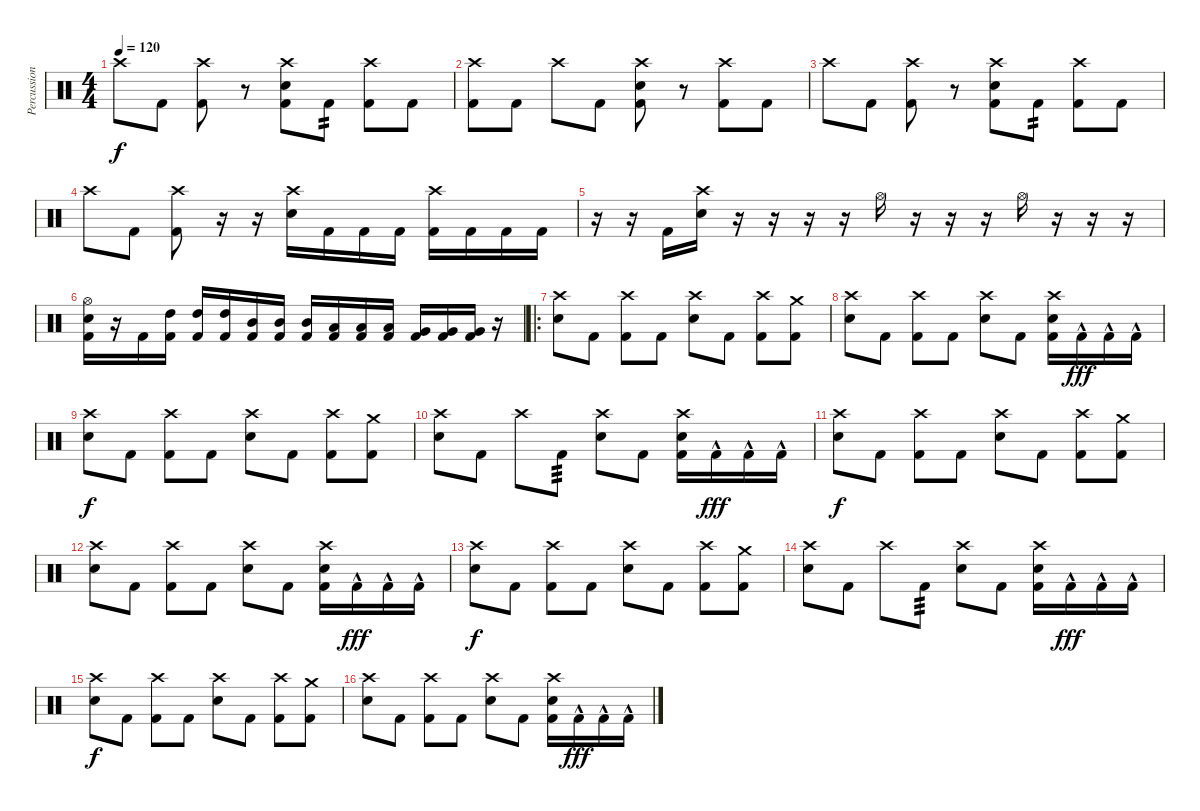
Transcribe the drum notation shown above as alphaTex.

\track ("Percussion" "Percussion") {instrument percussion}
\staff {score}
\articulation defaults
\ts (4 4)
\tempo 120
\clef neutral
\ks c "Crash high (hit)".8{dy f} "Kick (hit) 2".8
("Crash high (hit)" "Kick (hit) 2").8 r.8 ("Crash high (hit)" "Snare (hit) 2" "Kick (hit) 2").8 "Kick (hit) 2".8{tp 2} ("Crash high (hit)" "Kick (hit) 2").8 "Kick (hit) 2".8 |
("Crash high (hit)" "Kick (hit) 2").8 "Kick (hit) 2".8 "Crash high (hit)".8 "Kick (hit) 2".8 ("Crash high (hit)" "Snare (hit) 2" "Kick (hit) 2").8 r.8 ("Crash high (hit)" "Kick (hit) 2").8 "Kick (hit) 2".8 |
"Crash high (hit)".8 "Kick (hit) 2".8 ("Crash high (hit)" "Kick (hit) 2").8 r.8 ("Crash high (hit)" "Snare (hit) 2" "Kick (hit) 2").8 "Kick (hit) 2".8{tp 2} ("Crash high (hit)" "Kick (hit) 2").8 "Kick (hit) 2".8 |
"Crash high (hit)".8 "Kick (hit) 2".8 ("Crash high (hit)" "Kick (hit) 2").8 r.16 r.16 ("Crash high (hit)" "Snare (hit) 2").16 "Kick (hit) 2".16 "Kick (hit) 2".16 "Kick (hit) 2".16 ("Crash high (hit)" "Kick (hit) 2").16 "Kick (hit) 2".16 "Kick (hit) 2".16 "Kick (hit) 2".16 |
r.16 r.16 "Kick (hit) 2".16 ("Crash high (hit)" "Snare (hit) 2").16 r.16 r.16 r.16 r.16 "Hi-Hat (open)".16 r.16 r.16 r.16 "Hi-Hat (open)".16 r.16 r.16 r.16 |
("Hi-Hat (open)" "Snare (hit) 2" "Kick (hit) 2").16 r.16 "Kick (hit) 2".16 ("High Tom (hit)" "Kick (hit) 2").16 ("High Tom (hit)" "Kick (hit) 2").16 ("High Tom (hit)" "Kick (hit) 2").16 ("Mid Tom (hit)" "Kick (hit) 2").16 ("Mid Tom (hit)" "Kick (hit) 2").16 ("Mid Tom (hit)" "Kick (hit) 2").16 ("Low Tom (hit)" "Kick (hit) 2").16 ("Low Tom (hit)" "Kick (hit) 2").16 ("Low Tom (hit)" "Kick (hit) 2").16 ("Very Low Tom (hit)" "Kick (hit) 2").16 ("Very Low Tom (hit)" "Kick (hit) 2").16 ("Very Low Tom (hit)" "Kick (hit) 2").16 r.16 |
\ro
("Crash high (hit)" "Snare (hit) 2").8 "Kick (hit) 2".8 ("Crash high (hit)" "Kick (hit) 2").8 "Kick (hit) 2".8 ("Crash high (hit)" "Snare (hit) 2").8 "Kick (hit) 2".8 ("Crash high (hit)" "Kick (hit) 2").8 ("Crash medium (hit)" "Kick (hit) 2").8 |
("Crash high (hit)" "Snare (hit) 2").8 "Kick (hit) 2".8 ("Crash high (hit)" "Kick (hit) 2").8 "Kick (hit) 2".8 ("Crash high (hit)" "Snare (hit) 2").8 "Kick (hit) 2".8 ("Crash high (hit)" "Snare (hit) 2" "Kick (hit) 2").16 "Kick (hit) 2"{hac}.16{dy fff} "Kick (hit) 2"{hac}.16 "Kick (hit) 2"{hac}.16 |
("Crash high (hit)" "Snare (hit) 2").8{dy f} "Kick (hit) 2".8 ("Crash high (hit)" "Kick (hit) 2").8 "Kick (hit) 2".8 ("Crash high (hit)" "Snare (hit) 2").8 "Kick (hit) 2".8 ("Crash high (hit)" "Kick (hit) 2").8 ("Crash medium (hit)" "Kick (hit) 2").8 |
("Crash high (hit)" "Snare (hit) 2").8 "Kick (hit) 2".8 "Crash high (hit)".8 "Kick (hit) 2".8{tp 3} ("Crash high (hit)" "Snare (hit) 2").8 "Kick (hit) 2".8 ("Crash high (hit)" "Snare (hit) 2" "Kick (hit) 2").16 "Kick (hit) 2"{hac}.16{dy fff} "Kick (hit) 2"{hac}.16 "Kick (hit) 2"{hac}.16 |
("Crash high (hit)" "Snare (hit) 2").8{dy f} "Kick (hit) 2".8 ("Crash high (hit)" "Kick (hit) 2").8 "Kick (hit) 2".8 ("Crash high (hit)" "Snare (hit) 2").8 "Kick (hit) 2".8 ("Crash high (hit)" "Kick (hit) 2").8 ("Crash medium (hit)" "Kick (hit) 2").8 |
("Crash high (hit)" "Snare (hit) 2").8 "Kick (hit) 2".8 ("Crash high (hit)" "Kick (hit) 2").8 "Kick (hit) 2".8 ("Crash high (hit)" "Snare (hit) 2").8 "Kick (hit) 2".8 ("Crash high (hit)" "Snare (hit) 2" "Kick (hit) 2").16 "Kick (hit) 2"{hac}.16{dy fff} "Kick (hit) 2"{hac}.16 "Kick (hit) 2"{hac}.16 |
("Crash high (hit)" "Snare (hit) 2").8{dy f} "Kick (hit) 2".8 ("Crash high (hit)" "Kick (hit) 2").8 "Kick (hit) 2".8 ("Crash high (hit)" "Snare (hit) 2").8 "Kick (hit) 2".8 ("Crash high (hit)" "Kick (hit) 2").8 ("Crash medium (hit)" "Kick (hit) 2").8 |
("Crash high (hit)" "Snare (hit) 2").8 "Kick (hit) 2".8 "Crash high (hit)".8 "Kick (hit) 2".8{tp 3} ("Crash high (hit)" "Snare (hit) 2").8 "Kick (hit) 2".8 ("Crash high (hit)" "Snare (hit) 2" "Kick (hit) 2").16 "Kick (hit) 2"{hac}.16{dy fff} "Kick (hit) 2"{hac}.16 "Kick (hit) 2"{hac}.16 |
("Crash high (hit)" "Snare (hit) 2").8{dy f} "Kick (hit) 2".8 ("Crash high (hit)" "Kick (hit) 2").8 "Kick (hit) 2".8 ("Crash high (hit)" "Snare (hit) 2").8 "Kick (hit) 2".8 ("Crash high (hit)" "Kick (hit) 2").8 ("Crash medium (hit)" "Kick (hit) 2").8 |
("Crash high (hit)" "Snare (hit) 2").8 "Kick (hit) 2".8 ("Crash high (hit)" "Kick (hit) 2").8 "Kick (hit) 2".8 ("Crash high (hit)" "Snare (hit) 2").8 "Kick (hit) 2".8 ("Crash high (hit)" "Snare (hit) 2" "Kick (hit) 2").16 "Kick (hit) 2"{hac}.16{dy fff} "Kick (hit) 2"{hac}.16 "Kick (hit) 2"{hac}.16
